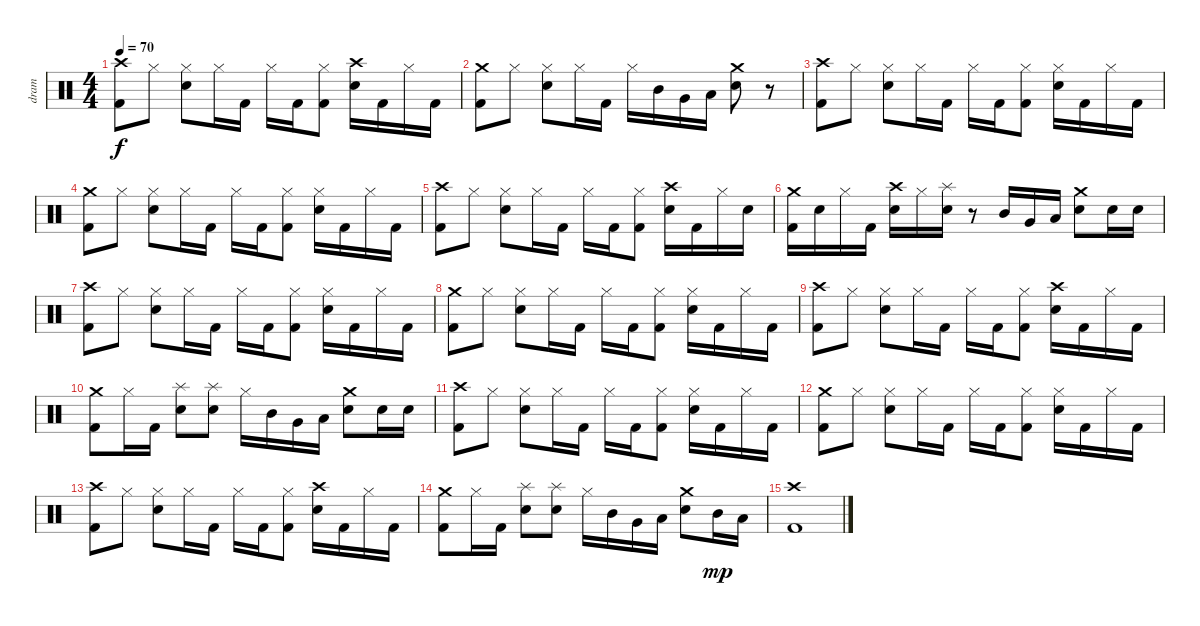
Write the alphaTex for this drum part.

\track ("dram" "dram") {instrument percussion}
\staff {score}
\articulation defaults
\ts (4 4)
\tempo 70
\clef neutral
\ks c
("Crash high (hit)" "Kick (hit) 2").8{dy f} "Hi-Hat (closed)".8 ("Electric Snare (hit)" "Hi-Hat (closed)").8 "Hi-Hat (closed)".16 "Kick (hit) 2".16 "Hi-Hat (closed)".16 "Kick (hit) 2".16 ("Kick (hit) 2" "Hi-Hat (closed)").8 ("Crash high (hit)" "Electric Snare (hit)").16 "Kick (hit) 2".16 "Hi-Hat (closed)".16 "Kick (hit) 2".16 |
("Crash medium (hit)" "Kick (hit) 2").8 "Hi-Hat (closed)".8 ("Electric Snare (hit)" "Hi-Hat (closed)").8 "Hi-Hat (closed)".16 "Kick (hit) 2".16 "Hi-Hat (closed)".16 "Mid Tom (hit)".16 "Very Low Tom (hit)".16 "Low Floor Tom (hit)".16 ("Crash medium (hit)" "Electric Snare (hit)").8 r.8 |
("Crash high (hit)" "Kick (hit) 2").8 "Hi-Hat (closed)".8 ("Electric Snare (hit)" "Hi-Hat (closed)").8 "Hi-Hat (closed)".16 "Kick (hit) 2".16 "Hi-Hat (closed)".16 "Kick (hit) 2".16 ("Kick (hit) 2" "Hi-Hat (closed)").8 ("Electric Snare (hit)" "Hi-Hat (closed)").16 "Kick (hit) 2".16 "Hi-Hat (closed)".16 "Kick (hit) 2".16 |
("Crash medium (hit)" "Kick (hit) 2").8 "Hi-Hat (closed)".8 ("Electric Snare (hit)" "Hi-Hat (closed)").8 "Hi-Hat (closed)".16 "Kick (hit) 2".16 "Hi-Hat (closed)".16 "Kick (hit) 2".16 ("Kick (hit) 2" "Hi-Hat (closed)").8 ("Electric Snare (hit)" "Hi-Hat (closed)").16 "Kick (hit) 2".16 "Hi-Hat (closed)".16 "Kick (hit) 2".16 |
("Crash high (hit)" "Kick (hit) 2").8 "Hi-Hat (closed)".8 ("Electric Snare (hit)" "Hi-Hat (closed)").8 "Hi-Hat (closed)".16 "Kick (hit) 2".16 "Hi-Hat (closed)".16 "Kick (hit) 2".16 ("Kick (hit) 2" "Hi-Hat (closed)").8 ("Crash high (hit)" "Electric Snare (hit)").16 "Kick (hit) 2".16 "Hi-Hat (closed)".16 "Electric Snare (hit)".16 |
("Crash medium (hit)" "Kick (hit) 2").16 "Electric Snare (hit)".16 "Hi-Hat (closed)".16 "Kick (hit) 2".16 ("Crash high (hit)" "Electric Snare (hit)").16 "Hi-Hat (closed)".16 ("Splash (hit)" "Electric Snare (hit)").16 r.8 "Mid Tom (hit)".16 "Very Low Tom (hit)".16 "Low Floor Tom (hit)".16 ("Crash medium (hit)" "Electric Snare (hit)").8 "Electric Snare (hit)".16 "Electric Snare (hit)".16 |
("Crash high (hit)" "Kick (hit) 2").8 "Hi-Hat (closed)".8 ("Electric Snare (hit)" "Hi-Hat (closed)").8 "Hi-Hat (closed)".16 "Kick (hit) 2".16 "Hi-Hat (closed)".16 "Kick (hit) 2".16 ("Kick (hit) 2" "Hi-Hat (closed)").8 ("Electric Snare (hit)" "Hi-Hat (closed)").16 "Kick (hit) 2".16 "Hi-Hat (closed)".16 "Kick (hit) 2".16 |
("Crash medium (hit)" "Kick (hit) 2").8 "Hi-Hat (closed)".8 ("Electric Snare (hit)" "Hi-Hat (closed)").8 "Hi-Hat (closed)".16 "Kick (hit) 2".16 "Hi-Hat (closed)".16 "Kick (hit) 2".16 ("Kick (hit) 2" "Hi-Hat (closed)").8 ("Electric Snare (hit)" "Hi-Hat (closed)").16 "Kick (hit) 2".16 "Hi-Hat (closed)".16 "Kick (hit) 2".16 |
("Crash high (hit)" "Kick (hit) 2").8 "Hi-Hat (closed)".8 ("Electric Snare (hit)" "Hi-Hat (closed)").8 "Hi-Hat (closed)".16 "Kick (hit) 2".16 "Hi-Hat (closed)".16 "Kick (hit) 2".16 ("Kick (hit) 2" "Hi-Hat (closed)").8 ("Crash high (hit)" "Electric Snare (hit)").16 "Kick (hit) 2".16 "Hi-Hat (closed)".16 "Kick (hit) 2".16 |
("Crash medium (hit)" "Kick (hit) 2").8 "Hi-Hat (closed)".16 "Kick (hit) 2".16 ("Splash (hit)" "Electric Snare (hit)").8 ("Splash (hit)" "Electric Snare (hit)").8 "Hi-Hat (closed)".16 "Mid Tom (hit)".16 "Very Low Tom (hit)".16 "Low Floor Tom (hit)".16 ("Crash medium (hit)" "Electric Snare (hit)").8 "Electric Snare (hit)".16 "Electric Snare (hit)".16 |
("Crash high (hit)" "Kick (hit) 2").8 "Hi-Hat (closed)".8 ("Electric Snare (hit)" "Hi-Hat (closed)").8 "Hi-Hat (closed)".16 "Kick (hit) 2".16 "Hi-Hat (closed)".16 "Kick (hit) 2".16 ("Kick (hit) 2" "Hi-Hat (closed)").8 ("Electric Snare (hit)" "Hi-Hat (closed)").16 "Kick (hit) 2".16 "Hi-Hat (closed)".16 "Kick (hit) 2".16 |
("Crash medium (hit)" "Kick (hit) 2").8 "Hi-Hat (closed)".8 ("Electric Snare (hit)" "Hi-Hat (closed)").8 "Hi-Hat (closed)".16 "Kick (hit) 2".16 "Hi-Hat (closed)".16 "Kick (hit) 2".16 ("Kick (hit) 2" "Hi-Hat (closed)").8 ("Electric Snare (hit)" "Hi-Hat (closed)").16 "Kick (hit) 2".16 "Hi-Hat (closed)".16 "Kick (hit) 2".16 |
("Crash high (hit)" "Kick (hit) 2").8 "Hi-Hat (closed)".8 ("Electric Snare (hit)" "Hi-Hat (closed)").8 "Hi-Hat (closed)".16 "Kick (hit) 2".16 "Hi-Hat (closed)".16 "Kick (hit) 2".16 ("Kick (hit) 2" "Hi-Hat (closed)").8 ("Crash high (hit)" "Electric Snare (hit)").16 "Kick (hit) 2".16 "Hi-Hat (closed)".16 "Kick (hit) 2".16 |
("Crash medium (hit)" "Kick (hit) 2").8 "Hi-Hat (closed)".16 "Kick (hit) 2".16 ("Splash (hit)" "Electric Snare (hit)").8 ("Splash (hit)" "Electric Snare (hit)").8 "Hi-Hat (closed)".16 "Mid Tom (hit)".16 "Very Low Tom (hit)".16 "Low Floor Tom (hit)".16 ("Crash medium (hit)" "Electric Snare (hit)").8 "Mid Tom (hit)".16{dy mp} "Low Floor Tom (hit)".16 |
("Crash high (hit)" "Kick (hit) 2").1
